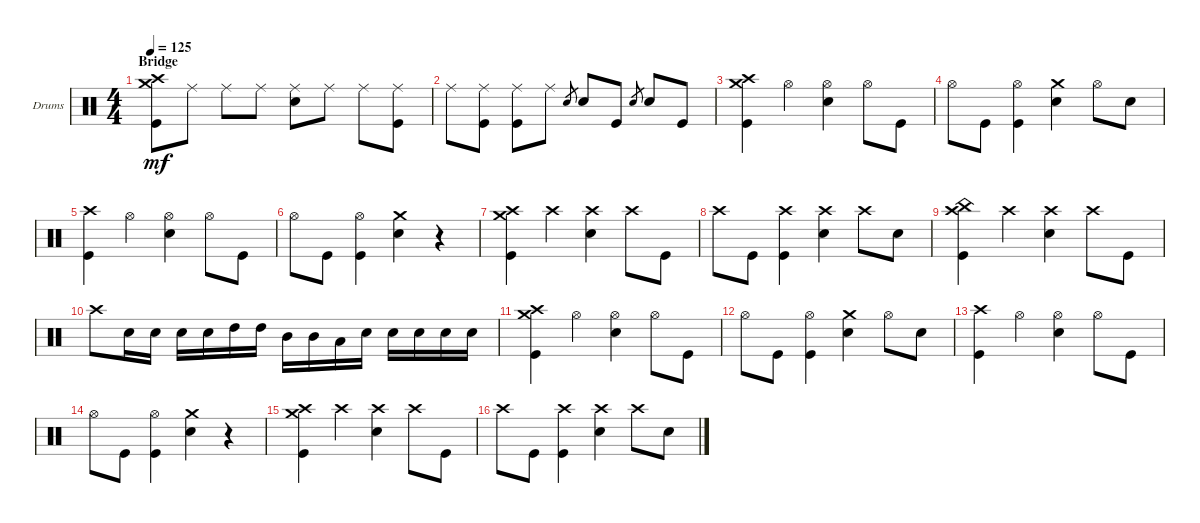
\bracketExtendMode groupsimilarinstruments
\firstSystemTrackNameOrientation horizontal
\otherSystemsTrackNameOrientation horizontal
\track ("Drums (chad ...)" "Drums") {instrument percussion}
\staff {score}
\articulation defaults
\ts (4 4)
\section ("" "Bridge")
\tempo 125
\clef neutral
\ks c
("Crash medium (hit)" "Crash high (hit)" "Kick (hit)").8{dy mf} "Ride (middle)".8 "Ride (middle)".8 "Ride (middle)".8 ("Snare (hit) 2" "Ride (middle)").8 "Ride (middle)".8 "Ride (middle)".8 ("Ride (middle)" "Kick (hit)").8 |
"Ride (middle)".8 ("Kick (hit)" "Ride (middle)").8 ("Ride (middle)" "Kick (hit)").8 "Ride (middle)".8 "Snare (hit) 2".8{gr} "Snare (hit) 2".8 "Kick (hit)".8 "Snare (hit) 2".8{gr} "Snare (hit) 2".8 "Kick (hit)".8 |
("Crash medium (hit)" "Crash high (hit)" "Kick (hit)").4 "Hi-Hat (open)".4 ("Hi-Hat (open)" "Snare (hit) 2").4 "Hi-Hat (open)".8 "Kick (hit)".8 |
"Hi-Hat (open)".8 "Kick (hit)".8 ("Kick (hit)" "Hi-Hat (open)").4 ("Crash medium (hit)" "Snare (hit) 2").4 "Hi-Hat (open)".8 "Snare (hit) 2".8 |
("Crash high (hit)" "Kick (hit)").4 "Hi-Hat (open)".4 ("Hi-Hat (open)" "Snare (hit) 2").4 "Hi-Hat (open)".8 "Kick (hit)".8 |
"Hi-Hat (open)".8 "Kick (hit)".8 ("Kick (hit)" "Hi-Hat (open)").4 ("Crash medium (hit)" "Snare (hit) 2").4 r.4 |
("Crash high (hit)" "Kick (hit)" "Crash medium (hit)").4 "Crash high (hit)".4 ("Snare (hit) 2" "Crash high (hit)").4 "Crash high (hit)".8 "Kick (hit)".8 |
"Crash high (hit)".8 "Kick (hit)".8 ("Kick (hit)" "Crash high (hit)").4 ("Snare (hit) 2" "Crash high (hit)").4 "Crash high (hit)".8 "Snare (hit) 2".8 |
("Crash high (hit)" "Kick (hit)" "China (hit)").4 "Crash high (hit)".4 ("Snare (hit) 2" "Crash high (hit)").4 "Crash high (hit)".8 "Kick (hit)".8 |
"Crash high (hit)".8 "Snare (hit) 2".16 "Snare (hit) 2".16 "Snare (hit) 2".16 "Snare (hit) 2".16 "High Tom (hit)".16 "High Tom (hit)".16 "Mid Tom (hit)".16 "Mid Tom (hit)".16 "Low Tom (hit)".16 "Snare (hit) 2".16 "Snare (hit) 2".16 "Snare (hit) 2".16 "Snare (hit) 2".16 "Snare (hit) 2".16 |
("Crash medium (hit)" "Crash high (hit)" "Kick (hit)").4 "Hi-Hat (open)".4 ("Hi-Hat (open)" "Snare (hit) 2").4 "Hi-Hat (open)".8 "Kick (hit)".8 |
"Hi-Hat (open)".8 "Kick (hit)".8 ("Kick (hit)" "Hi-Hat (open)").4 ("Crash medium (hit)" "Snare (hit) 2").4 "Hi-Hat (open)".8 "Snare (hit) 2".8 |
("Crash high (hit)" "Kick (hit)").4 "Hi-Hat (open)".4 ("Hi-Hat (open)" "Snare (hit) 2").4 "Hi-Hat (open)".8 "Kick (hit)".8 |
"Hi-Hat (open)".8 "Kick (hit)".8 ("Kick (hit)" "Hi-Hat (open)").4 ("Crash medium (hit)" "Snare (hit) 2").4 r.4 |
("Crash high (hit)" "Kick (hit)" "Crash medium (hit)").4 "Crash high (hit)".4 ("Crash high (hit)" "Snare (hit) 2").4 "Crash high (hit)".8 "Kick (hit)".8 |
"Crash high (hit)".8 "Kick (hit)".8 ("Kick (hit)" "Crash high (hit)").4 ("Crash high (hit)" "Snare (hit) 2").4 "Crash high (hit)".8 "Snare (hit) 2".8
